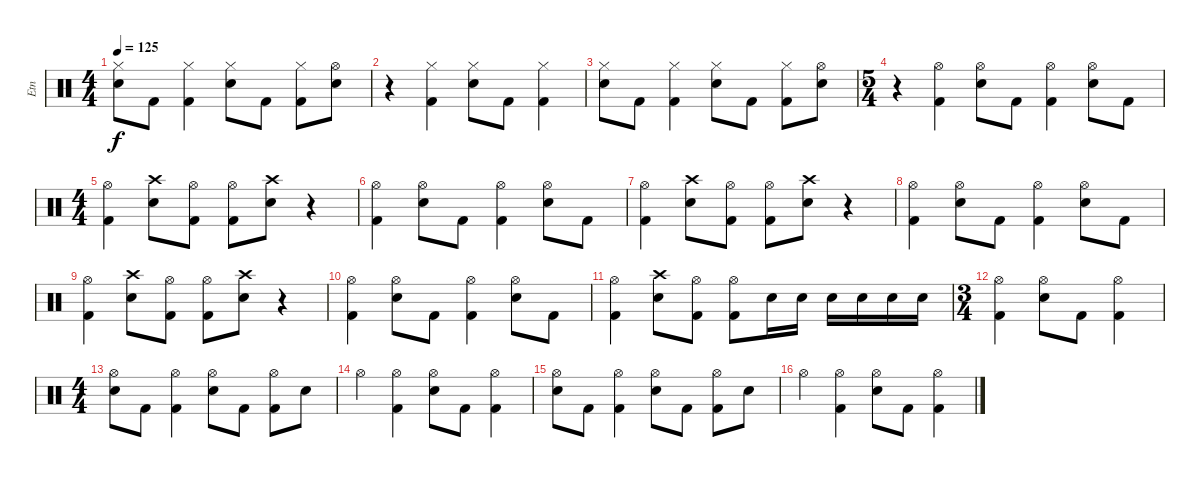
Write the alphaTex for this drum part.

\track ("Etn" "Etn") {instrument percussion}
\staff {score}
\articulation defaults
\ts (4 4)
\tempo 125
\clef neutral
\ks c
("Hi-Hat (closed)" "Snare (hit) 2").8{dy f} "Kick (hit) 2".8 ("Hi-Hat (closed)" "Kick (hit) 2").4 ("Hi-Hat (closed)" "Snare (hit) 2").8 "Kick (hit) 2".8 ("Hi-Hat (closed)" "Kick (hit) 2").8 ("Hi-Hat (open)" "Snare (hit) 2").8 |
r.4 ("Hi-Hat (closed)" "Kick (hit) 2").4 ("Hi-Hat (closed)" "Snare (hit) 2").8 "Kick (hit) 2".8 ("Hi-Hat (closed)" "Kick (hit) 2").4 |
("Hi-Hat (closed)" "Snare (hit) 2").8 "Kick (hit) 2".8 ("Hi-Hat (closed)" "Kick (hit) 2").4 ("Hi-Hat (closed)" "Snare (hit) 2").8 "Kick (hit) 2".8 ("Hi-Hat (closed)" "Kick (hit) 2").8 ("Hi-Hat (open)" "Snare (hit) 2").8 |
\ts (5 4)
r.4 ("Hi-Hat (open)" "Kick (hit) 2").4 ("Hi-Hat (open)" "Snare (hit) 2").8 "Kick (hit) 2".8 ("Hi-Hat (open)" "Kick (hit) 2").4 ("Hi-Hat (open)" "Snare (hit) 2").8 "Kick (hit) 2".8 |
\ts (4 4)
("Hi-Hat (open)" "Kick (hit) 2").4 ("Crash high (hit)" "Snare (hit) 2").8 ("Hi-Hat (open)" "Kick (hit) 2").8 ("Hi-Hat (open)" "Kick (hit) 2").8 ("Crash high (hit)" "Snare (hit) 2").8 r.4 |
("Hi-Hat (open)" "Kick (hit) 2").4 ("Hi-Hat (open)" "Snare (hit) 2").8 "Kick (hit) 2".8 ("Hi-Hat (open)" "Kick (hit) 2").4 ("Hi-Hat (open)" "Snare (hit) 2").8 "Kick (hit) 2".8 |
("Hi-Hat (open)" "Kick (hit) 2").4 ("Crash high (hit)" "Snare (hit) 2").8 ("Hi-Hat (open)" "Kick (hit) 2").8 ("Hi-Hat (open)" "Kick (hit) 2").8 ("Crash high (hit)" "Snare (hit) 2").8 r.4 |
("Hi-Hat (open)" "Kick (hit) 2").4 ("Hi-Hat (open)" "Snare (hit) 2").8 "Kick (hit) 2".8 ("Hi-Hat (open)" "Kick (hit) 2").4 ("Hi-Hat (open)" "Snare (hit) 2").8 "Kick (hit) 2".8 |
("Hi-Hat (open)" "Kick (hit) 2").4 ("Crash high (hit)" "Snare (hit) 2").8 ("Hi-Hat (open)" "Kick (hit) 2").8 ("Hi-Hat (open)" "Kick (hit) 2").8 ("Crash high (hit)" "Snare (hit) 2").8 r.4 |
("Hi-Hat (open)" "Kick (hit) 2").4 ("Hi-Hat (open)" "Snare (hit) 2").8 "Kick (hit) 2".8 ("Hi-Hat (open)" "Kick (hit) 2").4 ("Hi-Hat (open)" "Snare (hit) 2").8 "Kick (hit) 2".8 |
("Hi-Hat (open)" "Kick (hit) 2").4 ("Crash high (hit)" "Snare (hit) 2").8 ("Hi-Hat (open)" "Kick (hit) 2").8 ("Hi-Hat (open)" "Kick (hit) 2").8 "Snare (hit) 2".16 "Snare (hit) 2".16 "Snare (hit) 2".16 "Snare (hit) 2".16 "Snare (hit) 2".16 "Snare (hit) 2".16 |
\ts (3 4)
("Hi-Hat (open)" "Kick (hit) 2").4 ("Hi-Hat (open)" "Snare (hit) 2").8 "Kick (hit) 2".8 ("Hi-Hat (open)" "Kick (hit) 2").4 |
\ts (4 4)
("Hi-Hat (open)" "Snare (hit) 2").8 "Kick (hit) 2".8 ("Hi-Hat (open)" "Kick (hit) 2").4 ("Hi-Hat (open)" "Snare (hit) 2").8 "Kick (hit) 2".8 ("Hi-Hat (open)" "Kick (hit) 2").8 "Snare (hit) 2".8 |
"Hi-Hat (open)".4 ("Hi-Hat (open)" "Kick (hit) 2").4 ("Hi-Hat (open)" "Snare (hit) 2").8 "Kick (hit) 2".8 ("Hi-Hat (open)" "Kick (hit) 2").4 |
("Hi-Hat (open)" "Snare (hit) 2").8 "Kick (hit) 2".8 ("Hi-Hat (open)" "Kick (hit) 2").4 ("Hi-Hat (open)" "Snare (hit) 2").8 "Kick (hit) 2".8 ("Hi-Hat (open)" "Kick (hit) 2").8 "Snare (hit) 2".8 |
"Hi-Hat (open)".4 ("Hi-Hat (open)" "Kick (hit) 2").4 ("Hi-Hat (open)" "Snare (hit) 2").8 "Kick (hit) 2".8 ("Hi-Hat (open)" "Kick (hit) 2").4
